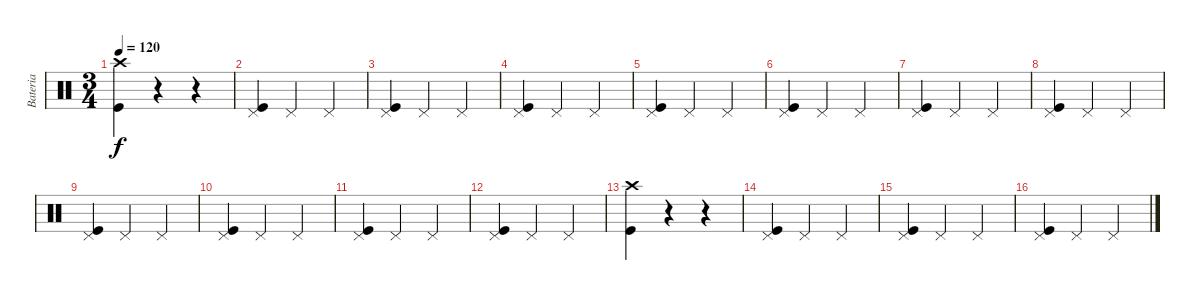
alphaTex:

\track ("Bateria" "Bateria") {instrument percussion}
\staff {score}
\articulation defaults
\ts (3 4)
\tempo 120
\clef neutral
\ks c
("Crash high (hit)" "Kick (hit)").4{dy f} r.4 r.4 |
("Pedal Hi-Hat (hit)" "Kick (hit)").4 "Pedal Hi-Hat (hit)".4 "Pedal Hi-Hat (hit)".4 |
("Pedal Hi-Hat (hit)" "Kick (hit)").4 "Pedal Hi-Hat (hit)".4 "Pedal Hi-Hat (hit)".4 |
("Pedal Hi-Hat (hit)" "Kick (hit)").4 "Pedal Hi-Hat (hit)".4 "Pedal Hi-Hat (hit)".4 |
("Pedal Hi-Hat (hit)" "Kick (hit)").4 "Pedal Hi-Hat (hit)".4 "Pedal Hi-Hat (hit)".4 |
("Pedal Hi-Hat (hit)" "Kick (hit)").4 "Pedal Hi-Hat (hit)".4 "Pedal Hi-Hat (hit)".4 |
("Pedal Hi-Hat (hit)" "Kick (hit)").4 "Pedal Hi-Hat (hit)".4 "Pedal Hi-Hat (hit)".4 |
("Pedal Hi-Hat (hit)" "Kick (hit)").4 "Pedal Hi-Hat (hit)".4 "Pedal Hi-Hat (hit)".4 |
("Pedal Hi-Hat (hit)" "Kick (hit)").4 "Pedal Hi-Hat (hit)".4 "Pedal Hi-Hat (hit)".4 |
("Pedal Hi-Hat (hit)" "Kick (hit)").4 "Pedal Hi-Hat (hit)".4 "Pedal Hi-Hat (hit)".4 |
("Pedal Hi-Hat (hit)" "Kick (hit)").4 "Pedal Hi-Hat (hit)".4 "Pedal Hi-Hat (hit)".4 |
("Pedal Hi-Hat (hit)" "Kick (hit)").4 "Pedal Hi-Hat (hit)".4 "Pedal Hi-Hat (hit)".4 |
("Crash high (hit)" "Kick (hit)").4 r.4 r.4 |
("Pedal Hi-Hat (hit)" "Kick (hit)").4 "Pedal Hi-Hat (hit)".4 "Pedal Hi-Hat (hit)".4 |
("Pedal Hi-Hat (hit)" "Kick (hit)").4 "Pedal Hi-Hat (hit)".4 "Pedal Hi-Hat (hit)".4 |
("Pedal Hi-Hat (hit)" "Kick (hit)").4 "Pedal Hi-Hat (hit)".4 "Pedal Hi-Hat (hit)".4
